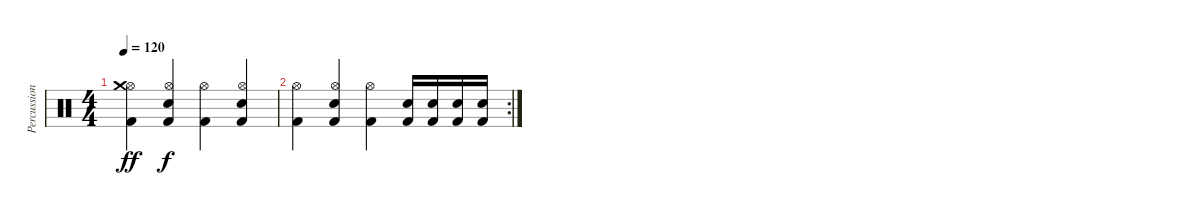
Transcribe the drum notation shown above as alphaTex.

\track ("Percussion" "Percussion") {instrument percussion}
\staff {score}
\articulation defaults
\ts (4 4)
\tempo 120
\clef neutral
\ks c
("Kick (hit) 2" "Hi-Hat (open)" "Crash medium (hit)").4{dy ff} ("Kick (hit) 2" "Snare (hit) 2" "Hi-Hat (open)").4{dy f} ("Kick (hit) 2" "Hi-Hat (open)").4 ("Kick (hit) 2" "Snare (hit) 2" "Hi-Hat (open)").4 |
\rc 2
("Kick (hit) 2" "Hi-Hat (open)").4 ("Kick (hit) 2" "Snare (hit) 2" "Hi-Hat (open)").4 ("Kick (hit) 2" "Hi-Hat (open)").4 ("Kick (hit) 2" "Snare (hit) 2").16 ("Kick (hit) 2" "Snare (hit) 2").16 ("Kick (hit) 2" "Snare (hit) 2").16 ("Kick (hit) 2" "Snare (hit) 2").16
